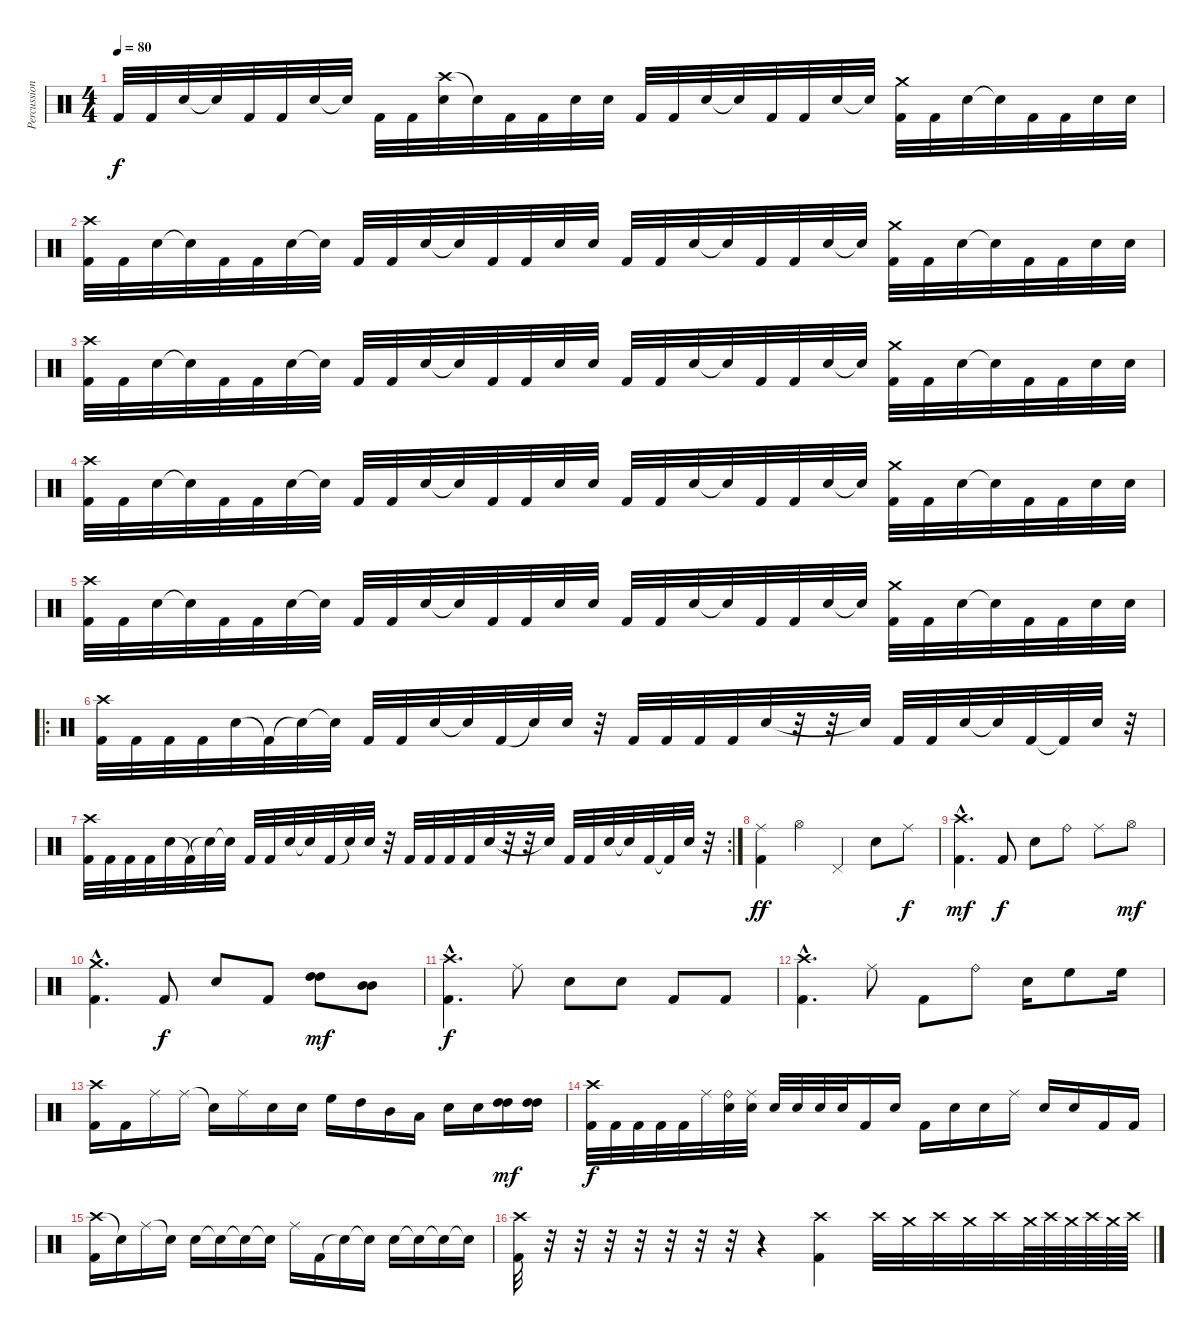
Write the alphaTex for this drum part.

\track ("Percussioni" "Percussion") {instrument percussion}
\staff {score}
\articulation defaults
\ts (4 4)
\tempo 80
\clef neutral
\ks c "Kick (hit) 2".32{dy f} "Kick (hit) 2".32 "Electric Snare (hit)".32 "Snare (hit)"{t}.32 "Kick (hit) 2".32 "Kick (hit) 2".32 "Electric Snare (hit)".32 "Snare (hit)"{t}.32 "Kick (hit) 2".32 "Kick (hit) 2".32
("Crash high (hit)" "Electric Snare (hit)").32 "Snare (hit)"{t}.32 "Kick (hit) 2".32 "Kick (hit) 2".32 "Electric Snare (hit)".32 "Electric Snare (hit)".32 "Kick (hit) 2".32 "Kick (hit) 2".32 "Electric Snare (hit)".32 "Snare (hit)"{t}.32 "Kick (hit) 2".32 "Kick (hit) 2".32 "Electric Snare (hit)".32 "Snare (hit)"{t}.32 ("Crash medium (hit)" "Kick (hit) 2").32 "Kick (hit) 2".32 "Electric Snare (hit)".32 "Snare (hit)"{t}.32 "Kick (hit) 2".32 "Kick (hit) 2".32 "Electric Snare (hit)".32 "Electric Snare (hit)".32 |
("Crash high (hit)" "Kick (hit) 2").32 "Kick (hit) 2".32 "Electric Snare (hit)".32 "Snare (hit)"{t}.32 "Kick (hit) 2".32 "Kick (hit) 2".32 "Electric Snare (hit)".32 "Snare (hit)"{t}.32 "Kick (hit) 2".32 "Kick (hit) 2".32 "Electric Snare (hit)".32 "Snare (hit)"{t}.32 "Kick (hit) 2".32 "Kick (hit) 2".32 "Electric Snare (hit)".32 "Electric Snare (hit)".32 "Kick (hit) 2".32 "Kick (hit) 2".32 "Electric Snare (hit)".32 "Snare (hit)"{t}.32 "Kick (hit) 2".32 "Kick (hit) 2".32 "Electric Snare (hit)".32 "Snare (hit)"{t}.32 ("Crash medium (hit)" "Kick (hit) 2").32 "Kick (hit) 2".32 "Electric Snare (hit)".32 "Snare (hit)"{t}.32 "Kick (hit) 2".32 "Kick (hit) 2".32 "Electric Snare (hit)".32 "Electric Snare (hit)".32 |
("Crash high (hit)" "Kick (hit) 2").32 "Kick (hit) 2".32 "Electric Snare (hit)".32 "Snare (hit)"{t}.32 "Kick (hit) 2".32 "Kick (hit) 2".32 "Electric Snare (hit)".32 "Snare (hit)"{t}.32 "Kick (hit) 2".32 "Kick (hit) 2".32 "Electric Snare (hit)".32 "Snare (hit)"{t}.32 "Kick (hit) 2".32 "Kick (hit) 2".32 "Electric Snare (hit)".32 "Electric Snare (hit)".32 "Kick (hit) 2".32 "Kick (hit) 2".32 "Electric Snare (hit)".32 "Snare (hit)"{t}.32 "Kick (hit) 2".32 "Kick (hit) 2".32 "Electric Snare (hit)".32 "Snare (hit)"{t}.32 ("Crash medium (hit)" "Kick (hit) 2").32 "Kick (hit) 2".32 "Electric Snare (hit)".32 "Snare (hit)"{t}.32 "Kick (hit) 2".32 "Kick (hit) 2".32 "Electric Snare (hit)".32 "Electric Snare (hit)".32 |
("Crash high (hit)" "Kick (hit) 2").32 "Kick (hit) 2".32 "Electric Snare (hit)".32 "Snare (hit)"{t}.32 "Kick (hit) 2".32 "Kick (hit) 2".32 "Electric Snare (hit)".32 "Snare (hit)"{t}.32 "Kick (hit) 2".32 "Kick (hit) 2".32 "Electric Snare (hit)".32 "Snare (hit)"{t}.32 "Kick (hit) 2".32 "Kick (hit) 2".32 "Electric Snare (hit)".32 "Electric Snare (hit)".32 "Kick (hit) 2".32 "Kick (hit) 2".32 "Electric Snare (hit)".32 "Snare (hit)"{t}.32 "Kick (hit) 2".32 "Kick (hit) 2".32 "Electric Snare (hit)".32 "Snare (hit)"{t}.32 ("Crash medium (hit)" "Kick (hit) 2").32 "Kick (hit) 2".32 "Electric Snare (hit)".32 "Snare (hit)"{t}.32 "Kick (hit) 2".32 "Kick (hit) 2".32 "Electric Snare (hit)".32 "Electric Snare (hit)".32 |
("Crash high (hit)" "Kick (hit) 2").32 "Kick (hit) 2".32 "Electric Snare (hit)".32 "Snare (hit)"{t}.32 "Kick (hit) 2".32 "Kick (hit) 2".32 "Electric Snare (hit)".32 "Snare (hit)"{t}.32 "Kick (hit) 2".32 "Kick (hit) 2".32 "Electric Snare (hit)".32 "Snare (hit)"{t}.32 "Kick (hit) 2".32 "Kick (hit) 2".32 "Electric Snare (hit)".32 "Electric Snare (hit)".32 "Kick (hit) 2".32 "Kick (hit) 2".32 "Electric Snare (hit)".32 "Snare (hit)"{t}.32 "Kick (hit) 2".32 "Kick (hit) 2".32 "Electric Snare (hit)".32 "Snare (hit)"{t}.32 ("Crash medium (hit)" "Kick (hit) 2").32 "Kick (hit) 2".32 "Electric Snare (hit)".32 "Snare (hit)"{t}.32 "Kick (hit) 2".32 "Kick (hit) 2".32 "Electric Snare (hit)".32 "Electric Snare (hit)".32 |
\ro
("Crash high (hit)" "Kick (hit) 2").32 "Kick (hit) 2".32 "Kick (hit) 2".32 "Kick (hit) 2".32 "Electric Snare (hit)".32 "Kick (hit) 2"{t}.32 "Electric Snare (hit)"{t}.32 "Snare (hit)"{t}.32 "Kick (hit) 2".32 "Kick (hit) 2".32 "Electric Snare (hit)".32 "Snare (hit)"{t}.32 "Kick (hit) 2".32 "Electric Snare (hit)"{t}.32 "Electric Snare (hit)".32 r.32 "Kick (hit) 2".32 "Kick (hit) 2".32 "Kick (hit) 2".32 "Kick (hit) 2".32 "Electric Snare (hit)".32 r.32 r.32 "Snare (hit)"{t}.32 "Kick (hit) 2".32 "Kick (hit) 2".32 "Electric Snare (hit)".32 "Snare (hit)"{t}.32 "Kick (hit) 2".32 "Kick (hit) 2"{t}.32 "Electric Snare (hit)".32 r.32 |
\rc 2
("Crash high (hit)" "Kick (hit) 2").32 "Kick (hit) 2".32 "Kick (hit) 2".32 "Kick (hit) 2".32 "Electric Snare (hit)".32 "Kick (hit) 2"{t}.32 "Electric Snare (hit)"{t}.32 "Snare (hit)"{t}.32 "Kick (hit) 2".32 "Kick (hit) 2".32 "Electric Snare (hit)".32 "Snare (hit)"{t}.32 "Kick (hit) 2".32 "Electric Snare (hit)"{t}.32 "Electric Snare (hit)".32 r.32 "Kick (hit) 2".32 "Kick (hit) 2".32 "Kick (hit) 2".32 "Kick (hit) 2".32 "Electric Snare (hit)".32 r.32 r.32 "Snare (hit)"{t}.32 "Kick (hit) 2".32 "Kick (hit) 2".32 "Electric Snare (hit)".32 "Snare (hit)"{t}.32 "Kick (hit) 2".32 "Kick (hit) 2"{t}.32 "Electric Snare (hit)".32 r.32 |
("Ride (middle)" "Kick (hit) 2").4{dy ff} "Hi-Hat (open)".4 "Pedal Hi-Hat (hit)".4 "Electric Snare (hit)".8 "Ride (middle)".8{dy f} |
("Crash high (hit)"{hac} "Kick (hit) 2"{hac}).4{d dy mf} "Kick (hit) 2".8{dy f} "Electric Snare (hit)".8 "Ride (bell)".8 "Ride (middle)".8{bd 120} "Hi-Hat (open)".8{dy mf} |
("Crash medium (hit)"{hac} "Kick (hit) 2"{hac}).4{d} "Kick (hit) 2".8{dy f} "Electric Snare (hit)".8 "Kick (hit) 2".8 ("High Tom (hit)" "High Tom (hit)").8{bd 120 dy mf} ("Mid Tom (hit)" "Mid Tom (hit)").8{bd 120} |
("Crash high (hit)"{hac} "Kick (hit) 2"{hac}).4{d dy f} "Ride (middle)".8 "Electric Snare (hit)".8 "Electric Snare (hit)".8 "Kick (hit) 2".8 "Kick (hit) 2".8 |
("Crash high (hit)"{hac} "Kick (hit) 2"{hac}).4{d} "Ride (middle)".8 "Kick (hit) 2".8 "Ride (bell)".8 "Electric Snare (hit)".16 "High Floor Tom (hit)".8 "High Floor Tom (hit)".16 |
("Crash high (hit)" "Kick (hit) 2").16 "Kick (hit) 2".16 "Ride (middle)".16 "Ride (middle)".16 "Snare (hit)"{t}.16 "Ride (middle)".16 "Electric Snare (hit)".16 "Electric Snare (hit)".16 "High Floor Tom (hit)".16 "High Tom (hit)".16 "Mid Tom (hit)".16 "Low Tom (hit)".16 "Electric Snare (hit)".16 "Electric Snare (hit)".16 ("High Tom (hit)" "High Tom (hit)").16{bd 120 dy mf} ("High Tom (hit)" "High Tom (hit)").16{bd 120} |
("Crash high (hit)" "Kick (hit) 2").32{dy f} "Kick (hit) 2".32 "Kick (hit) 2".32 "Kick (hit) 2".32 "Kick (hit) 2".32 "Ride (middle)".32 ("Electric Snare (hit)" "Ride (bell)").32 ("Electric Snare (hit)" "Ride (middle)").32 "Electric Snare (hit)".32 "Electric Snare (hit)".32 "Electric Snare (hit)".32 "Electric Snare (hit)".32 "Kick (hit) 2".16 "Electric Snare (hit)".16 "Kick (hit) 2".16 "Electric Snare (hit)".16 "Electric Snare (hit)".16 "Ride (middle)".16 "Electric Snare (hit)".16 "Electric Snare (hit)".16 "Kick (hit) 2".16 "Kick (hit) 2".16 |
("Crash high (hit)" "Kick (hit) 2").16 "Snare (hit)"{t}.16 "Ride (middle)".16 "Snare (hit)"{t}.16 "Electric Snare (hit)".16 "Snare (hit)"{t}.16 "Snare (hit)"{t}.16 "Snare (hit)"{t}.16 "Ride (middle)".16 "Kick (hit) 2".16 "Snare (hit)"{t}.16 "Snare (hit)"{t}.16 "Electric Snare (hit)".16 "Snare (hit)"{t}.16 "Snare (hit)"{t}.16 "Snare (hit)"{t}.16 |
("Crash high (hit)" "Kick (hit) 2").32 r.32 r.32 r.32 r.32 r.32 r.32 r.32 r.4 ("Crash high (hit)" "Kick (hit) 2").4 "Crash high (hit)".32 "Crash medium (hit)".32 "Crash high (hit)".32 "Crash medium (hit)".32 "Crash high (hit)".32 "Crash medium (hit)".64 "Crash high (hit)".64 "Crash medium (hit)".64 "Crash high (hit)".64 "Crash medium (hit)".64 "Crash high (hit)".64
